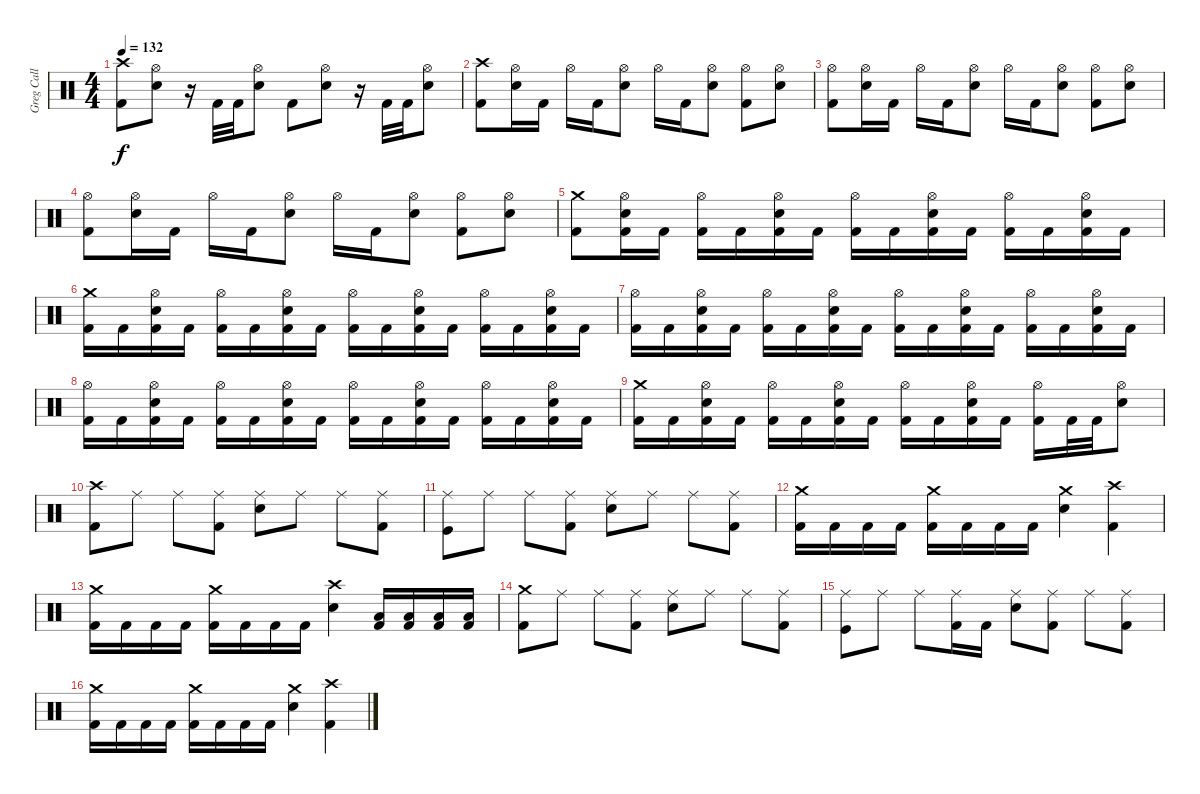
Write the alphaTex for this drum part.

\track ("Greg Call (Drums)" "Greg Call ") {instrument percussion}
\staff {score}
\articulation defaults
\ts (4 4)
\tempo 132
\clef neutral
\ks c
("Crash high (hit)" "Kick (hit) 2").8{dy f} ("Hi-Hat (open)" "Snare (hit) 2").8 r.16 "Kick (hit) 2".32 "Kick (hit) 2".32 ("Hi-Hat (open)" "Snare (hit) 2").8 "Kick (hit) 2".8 ("Hi-Hat (open)" "Snare (hit) 2").8 r.16 "Kick (hit) 2".32 "Kick (hit) 2".32 ("Hi-Hat (open)" "Snare (hit) 2").8 |
("Crash high (hit)" "Kick (hit) 2").8 ("Hi-Hat (open)" "Snare (hit) 2").16 "Kick (hit) 2".16 "Hi-Hat (open)".16 "Kick (hit) 2".16 ("Hi-Hat (open)" "Snare (hit) 2").8 "Hi-Hat (open)".16 "Kick (hit) 2".16 ("Hi-Hat (open)" "Snare (hit) 2").8 ("Hi-Hat (open)" "Kick (hit) 2").8 ("Hi-Hat (open)" "Snare (hit) 2").8 |
("Hi-Hat (open)" "Kick (hit) 2").8 ("Hi-Hat (open)" "Snare (hit) 2").16 "Kick (hit) 2".16 "Hi-Hat (open)".16 "Kick (hit) 2".16 ("Hi-Hat (open)" "Snare (hit) 2").8 "Hi-Hat (open)".16 "Kick (hit) 2".16 ("Hi-Hat (open)" "Snare (hit) 2").8 ("Hi-Hat (open)" "Kick (hit) 2").8 ("Hi-Hat (open)" "Snare (hit) 2").8 |
("Hi-Hat (open)" "Kick (hit) 2").8 ("Hi-Hat (open)" "Snare (hit) 2").16 "Kick (hit) 2".16 "Hi-Hat (open)".16 "Kick (hit) 2".16 ("Hi-Hat (open)" "Snare (hit) 2").8 "Hi-Hat (open)".16 "Kick (hit) 2".16 ("Hi-Hat (open)" "Snare (hit) 2").8 ("Hi-Hat (open)" "Kick (hit) 2").8 ("Hi-Hat (open)" "Snare (hit) 2").8 |
("Crash medium (hit)" "Kick (hit) 2").8 ("Hi-Hat (open)" "Snare (hit) 2" "Kick (hit) 2").16 "Kick (hit) 2".16 ("Hi-Hat (open)" "Kick (hit) 2").16 "Kick (hit) 2".16 ("Hi-Hat (open)" "Snare (hit) 2" "Kick (hit) 2").16 "Kick (hit) 2".16 ("Hi-Hat (open)" "Kick (hit) 2").16 "Kick (hit) 2".16 ("Hi-Hat (open)" "Snare (hit) 2" "Kick (hit) 2").16 "Kick (hit) 2".16 ("Hi-Hat (open)" "Kick (hit) 2").16 "Kick (hit) 2".16 ("Hi-Hat (open)" "Snare (hit) 2" "Kick (hit) 2").16 "Kick (hit) 2".16 |
("Crash medium (hit)" "Kick (hit) 2").16 "Kick (hit) 2".16 ("Hi-Hat (open)" "Snare (hit) 2" "Kick (hit) 2").16 "Kick (hit) 2".16 ("Hi-Hat (open)" "Kick (hit) 2").16 "Kick (hit) 2".16 ("Hi-Hat (open)" "Snare (hit) 2" "Kick (hit) 2").16 "Kick (hit) 2".16 ("Hi-Hat (open)" "Kick (hit) 2").16 "Kick (hit) 2".16 ("Hi-Hat (open)" "Snare (hit) 2" "Kick (hit) 2").16 "Kick (hit) 2".16 ("Hi-Hat (open)" "Kick (hit) 2").16 "Kick (hit) 2".16 ("Hi-Hat (open)" "Snare (hit) 2" "Kick (hit) 2").16 "Kick (hit) 2".16 |
("Hi-Hat (open)" "Kick (hit) 2").16 "Kick (hit) 2".16 ("Hi-Hat (open)" "Snare (hit) 2" "Kick (hit) 2").16 "Kick (hit) 2".16 ("Hi-Hat (open)" "Kick (hit) 2").16 "Kick (hit) 2".16 ("Hi-Hat (open)" "Snare (hit) 2" "Kick (hit) 2").16 "Kick (hit) 2".16 ("Hi-Hat (open)" "Kick (hit) 2").16 "Kick (hit) 2".16 ("Hi-Hat (open)" "Snare (hit) 2" "Kick (hit) 2").16 "Kick (hit) 2".16 ("Hi-Hat (open)" "Kick (hit) 2").16 "Kick (hit) 2".16 ("Hi-Hat (open)" "Snare (hit) 2" "Kick (hit) 2").16 "Kick (hit) 2".16 |
("Hi-Hat (open)" "Kick (hit) 2").16 "Kick (hit) 2".16 ("Hi-Hat (open)" "Snare (hit) 2" "Kick (hit) 2").16 "Kick (hit) 2".16 ("Hi-Hat (open)" "Kick (hit) 2").16 "Kick (hit) 2".16 ("Hi-Hat (open)" "Snare (hit) 2" "Kick (hit) 2").16 "Kick (hit) 2".16 ("Hi-Hat (open)" "Kick (hit) 2").16 "Kick (hit) 2".16 ("Hi-Hat (open)" "Snare (hit) 2" "Kick (hit) 2").16 "Kick (hit) 2".16 ("Hi-Hat (open)" "Kick (hit) 2").16 "Kick (hit) 2".16 ("Hi-Hat (open)" "Snare (hit) 2" "Kick (hit) 2").16 "Kick (hit) 2".16 |
("Crash medium (hit)" "Kick (hit) 2").16 "Kick (hit) 2".16 ("Hi-Hat (open)" "Snare (hit) 2" "Kick (hit) 2").16 "Kick (hit) 2".16 ("Hi-Hat (open)" "Kick (hit) 2").16 "Kick (hit) 2".16 ("Hi-Hat (open)" "Snare (hit) 2" "Kick (hit) 2").16 "Kick (hit) 2".16 ("Hi-Hat (open)" "Kick (hit) 2").16 "Kick (hit) 2".16 ("Hi-Hat (open)" "Snare (hit) 2" "Kick (hit) 2").16 "Kick (hit) 2".16 ("Hi-Hat (open)" "Kick (hit) 2").16 "Kick (hit) 2".32 "Kick (hit) 2".32 ("Hi-Hat (open)" "Snare (hit) 2").8 |
("Crash high (hit)" "Kick (hit) 2").8 "Ride (middle)".8 "Ride (middle)".8 ("Ride (middle)" "Kick (hit) 2").8 ("Ride (middle)" "Snare (hit) 2").8 "Ride (middle)".8 "Ride (middle)".8 ("Ride (middle)" "Kick (hit) 2").8 |
("Ride (middle)" "Kick (hit)").8 "Ride (middle)".8 "Ride (middle)".8 ("Ride (middle)" "Kick (hit) 2").8 ("Ride (middle)" "Snare (hit) 2").8 "Ride (middle)".8 "Ride (middle)".8 ("Ride (middle)" "Kick (hit) 2").8 |
("Crash medium (hit)" "Kick (hit) 2").16 "Kick (hit) 2".16 "Kick (hit) 2".16 "Kick (hit) 2".16 ("Crash medium (hit)" "Kick (hit) 2").16 "Kick (hit) 2".16 "Kick (hit) 2".16 "Kick (hit) 2".16 ("Crash medium (hit)" "Snare (hit) 2").4 ("Crash high (hit)" "Kick (hit) 2").4 |
("Crash medium (hit)" "Kick (hit) 2").16 "Kick (hit) 2".16 "Kick (hit) 2".16 "Kick (hit) 2".16 ("Crash medium (hit)" "Kick (hit) 2").16 "Kick (hit) 2".16 "Kick (hit) 2".16 "Kick (hit) 2".16 ("Crash high (hit)" "Snare (hit) 2").4 ("Low Floor Tom (hit)" "Kick (hit) 2").16 ("Low Floor Tom (hit)" "Kick (hit) 2").16 ("Low Floor Tom (hit)" "Kick (hit) 2").16 ("Low Floor Tom (hit)" "Kick (hit) 2").16 |
("Crash medium (hit)" "Kick (hit) 2").8 "Ride (middle)".8 "Ride (middle)".8 ("Ride (middle)" "Kick (hit) 2").8 ("Ride (middle)" "Snare (hit) 2").8 "Ride (middle)".8 "Ride (middle)".8 ("Ride (middle)" "Kick (hit) 2").8 |
("Ride (middle)" "Kick (hit)").8 "Ride (middle)".8 "Ride (middle)".8 ("Ride (middle)" "Kick (hit) 2").16 "Kick (hit) 2".16 ("Ride (middle)" "Snare (hit) 2").8 ("Ride (middle)" "Kick (hit) 2").8 "Ride (middle)".8 ("Ride (middle)" "Kick (hit) 2").8 |
("Crash medium (hit)" "Kick (hit) 2").16 "Kick (hit) 2".16 "Kick (hit) 2".16 "Kick (hit) 2".16 ("Crash medium (hit)" "Kick (hit) 2").16 "Kick (hit) 2".16 "Kick (hit) 2".16 "Kick (hit) 2".16 ("Crash medium (hit)" "Snare (hit) 2").4 ("Crash high (hit)" "Kick (hit) 2").4
